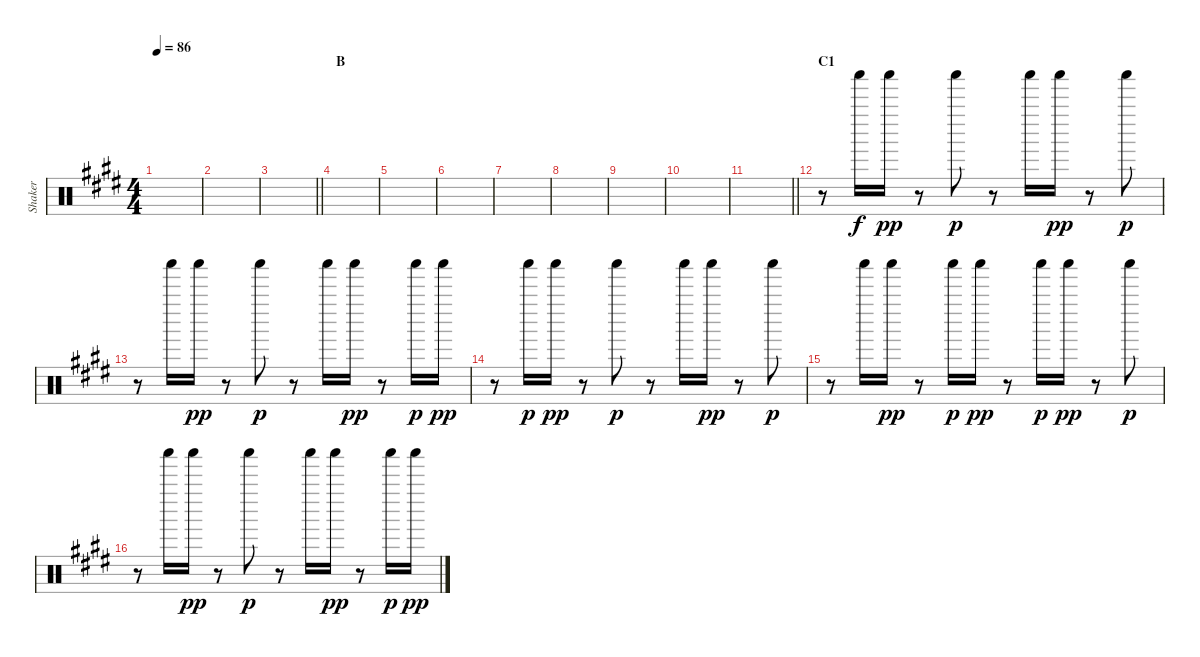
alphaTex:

\track ("Shaker" "Shaker") {instrument percussion}
\staff {score}
\articulation defaults
\ts (4 4)
\tempo 86
\clef neutral
\ks e
|
|
\barLineRight lightlight
|
\section ("" "B")
|
|
|
|
|
|
|
\barLineRight lightlight
|
\section ("" "C1")
r.8 "Shaker (hit)".16 "Shaker (hit)".16{dy pp} r.8 "Shaker (hit)".8{dy p} r.8 "Shaker (hit)".16 "Shaker (hit)".16{dy pp} r.8 "Shaker (hit)".8{dy p} |
r.8 "Shaker (hit)".16 "Shaker (hit)".16{dy pp} r.8 "Shaker (hit)".8{dy p} r.8 "Shaker (hit)".16 "Shaker (hit)".16{dy pp} r.8 "Shaker (hit)".16{dy p} "Shaker (hit)".16{dy pp} |
r.8 "Shaker (hit)".16{dy p} "Shaker (hit)".16{dy pp} r.8 "Shaker (hit)".8{dy p} r.8 "Shaker (hit)".16 "Shaker (hit)".16{dy pp} r.8 "Shaker (hit)".8{dy p} |
r.8 "Shaker (hit)".16 "Shaker (hit)".16{dy pp} r.8 "Shaker (hit)".16{dy p} "Shaker (hit)".16{dy pp} r.8 "Shaker (hit)".16{dy p} "Shaker (hit)".16{dy pp} r.8 "Shaker (hit)".8{dy p} |
r.8 "Shaker (hit)".16 "Shaker (hit)".16{dy pp} r.8 "Shaker (hit)".8{dy p} r.8 "Shaker (hit)".16 "Shaker (hit)".16{dy pp} r.8 "Shaker (hit)".16{dy p} "Shaker (hit)".16{dy pp}
